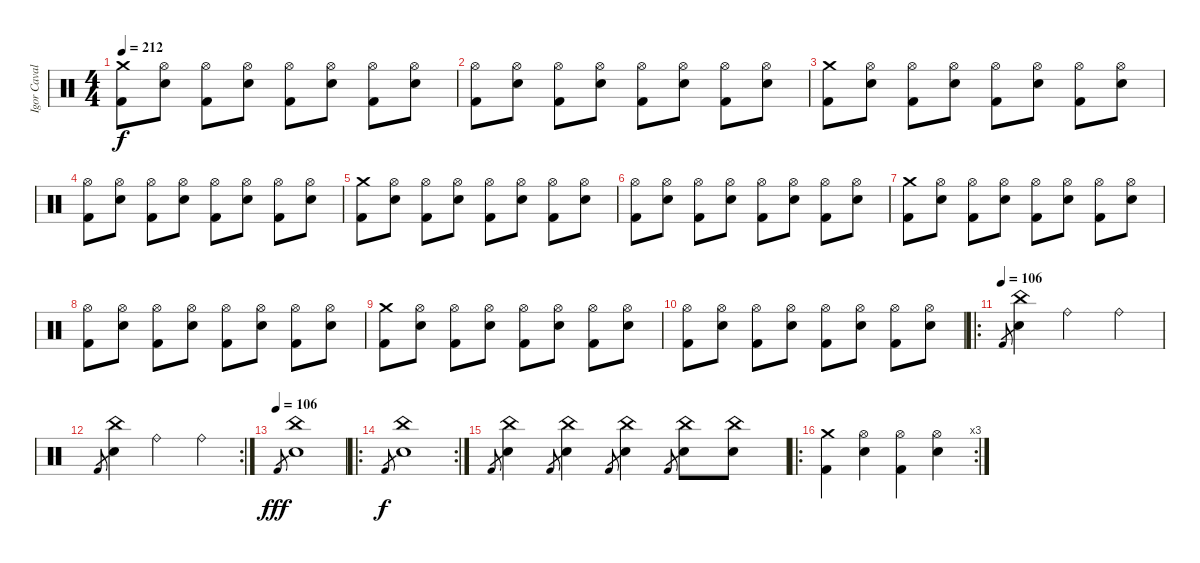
\track ("Igor Cavalera" "Igor Caval") {instrument percussion}
\staff {score}
\articulation defaults
\ts (4 4)
\tempo 212
\clef neutral
\ks c
("Kick (hit) 2" "Crash medium (hit)").8{dy f} ("Snare (hit) 2" "Hi-Hat (open)").8 ("Kick (hit) 2" "Hi-Hat (open)").8 ("Snare (hit) 2" "Hi-Hat (open)").8 ("Kick (hit) 2" "Hi-Hat (open)").8 ("Snare (hit) 2" "Hi-Hat (open)").8 ("Kick (hit) 2" "Hi-Hat (open)").8 ("Snare (hit) 2" "Hi-Hat (open)").8 |
("Kick (hit) 2" "Hi-Hat (open)").8 ("Snare (hit) 2" "Hi-Hat (open)").8 ("Kick (hit) 2" "Hi-Hat (open)").8 ("Snare (hit) 2" "Hi-Hat (open)").8 ("Kick (hit) 2" "Hi-Hat (open)").8 ("Snare (hit) 2" "Hi-Hat (open)").8 ("Kick (hit) 2" "Hi-Hat (open)").8 ("Snare (hit) 2" "Hi-Hat (open)").8 |
("Kick (hit) 2" "Crash medium (hit)").8 ("Snare (hit) 2" "Hi-Hat (open)").8 ("Kick (hit) 2" "Hi-Hat (open)").8 ("Snare (hit) 2" "Hi-Hat (open)").8 ("Kick (hit) 2" "Hi-Hat (open)").8 ("Snare (hit) 2" "Hi-Hat (open)").8 ("Kick (hit) 2" "Hi-Hat (open)").8 ("Snare (hit) 2" "Hi-Hat (open)").8 |
("Kick (hit) 2" "Hi-Hat (open)").8 ("Snare (hit) 2" "Hi-Hat (open)").8 ("Kick (hit) 2" "Hi-Hat (open)").8 ("Snare (hit) 2" "Hi-Hat (open)").8 ("Kick (hit) 2" "Hi-Hat (open)").8 ("Snare (hit) 2" "Hi-Hat (open)").8 ("Kick (hit) 2" "Hi-Hat (open)").8 ("Snare (hit) 2" "Hi-Hat (open)").8 |
("Kick (hit) 2" "Crash medium (hit)").8 ("Snare (hit) 2" "Hi-Hat (open)").8 ("Kick (hit) 2" "Hi-Hat (open)").8 ("Snare (hit) 2" "Hi-Hat (open)").8 ("Kick (hit) 2" "Hi-Hat (open)").8 ("Snare (hit) 2" "Hi-Hat (open)").8 ("Kick (hit) 2" "Hi-Hat (open)").8 ("Snare (hit) 2" "Hi-Hat (open)").8 |
("Kick (hit) 2" "Hi-Hat (open)").8 ("Snare (hit) 2" "Hi-Hat (open)").8 ("Kick (hit) 2" "Hi-Hat (open)").8 ("Snare (hit) 2" "Hi-Hat (open)").8 ("Kick (hit) 2" "Hi-Hat (open)").8 ("Snare (hit) 2" "Hi-Hat (open)").8 ("Kick (hit) 2" "Hi-Hat (open)").8 ("Snare (hit) 2" "Hi-Hat (open)").8 |
("Kick (hit) 2" "Crash medium (hit)").8 ("Snare (hit) 2" "Hi-Hat (open)").8 ("Kick (hit) 2" "Hi-Hat (open)").8 ("Snare (hit) 2" "Hi-Hat (open)").8 ("Kick (hit) 2" "Hi-Hat (open)").8 ("Snare (hit) 2" "Hi-Hat (open)").8 ("Kick (hit) 2" "Hi-Hat (open)").8 ("Snare (hit) 2" "Hi-Hat (open)").8 |
("Kick (hit) 2" "Hi-Hat (open)").8 ("Snare (hit) 2" "Hi-Hat (open)").8 ("Kick (hit) 2" "Hi-Hat (open)").8 ("Snare (hit) 2" "Hi-Hat (open)").8 ("Kick (hit) 2" "Hi-Hat (open)").8 ("Snare (hit) 2" "Hi-Hat (open)").8 ("Kick (hit) 2" "Hi-Hat (open)").8 ("Snare (hit) 2" "Hi-Hat (open)").8 |
("Kick (hit) 2" "Crash medium (hit)").8 ("Snare (hit) 2" "Hi-Hat (open)").8 ("Kick (hit) 2" "Hi-Hat (open)").8 ("Snare (hit) 2" "Hi-Hat (open)").8 ("Kick (hit) 2" "Hi-Hat (open)").8 ("Snare (hit) 2" "Hi-Hat (open)").8 ("Kick (hit) 2" "Hi-Hat (open)").8 ("Snare (hit) 2" "Hi-Hat (open)").8 |
("Kick (hit) 2" "Hi-Hat (open)").8 ("Snare (hit) 2" "Hi-Hat (open)").8 ("Kick (hit) 2" "Hi-Hat (open)").8 ("Snare (hit) 2" "Hi-Hat (open)").8 ("Kick (hit) 2" "Hi-Hat (open)").8 ("Snare (hit) 2" "Hi-Hat (open)").8 ("Kick (hit) 2" "Hi-Hat (open)").8 ("Snare (hit) 2" "Hi-Hat (open)").8 |
\ro
\tempo (106)
"Kick (hit) 2".8{gr} ("China (hit)" "Snare (hit) 2").4 "Ride (bell)".2 "Ride (bell)".4 |
\rc 2 "Kick (hit) 2".8{gr}
("China (hit)" "Snare (hit) 2").4 "Ride (bell)".2 "Ride (bell)".4 |
\tempo (106)
"Kick (hit) 2".8{gr dy fff} ("Snare (hit) 2" "China (hit)").1 |
\ro
\rc 2 "Kick (hit) 2".8{gr dy f}
("Snare (hit) 2" "China (hit)").1 |
"Kick (hit) 2".8{gr} ("Snare (hit) 2" "China (hit)").4 "Kick (hit) 2".8{gr} ("Snare (hit) 2" "China (hit)").4 "Kick (hit) 2".8{gr} ("Snare (hit) 2" "China (hit)").4 "Kick (hit) 2".8{gr} ("Snare (hit) 2" "China (hit)").8 ("Snare (hit) 2" "China (hit)").8 |
\ro
\rc 3
("Kick (hit) 2" "Crash medium (hit)").4 ("Snare (hit) 2" "Hi-Hat (open)").4 ("Kick (hit) 2" "Hi-Hat (open)").4 ("Snare (hit) 2" "Hi-Hat (open)").4
